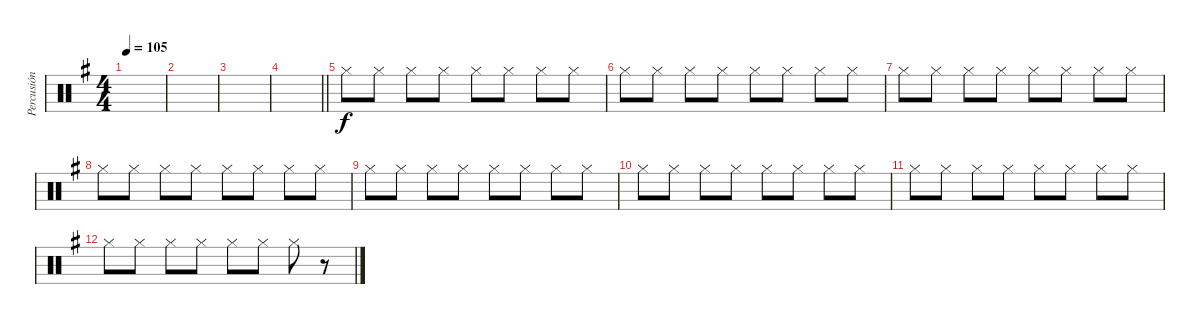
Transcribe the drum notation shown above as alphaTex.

\track ("Percusión" "Percusión") {instrument percussion}
\staff {score}
\articulation defaults
\ts (4 4)
\tempo 105
\clef neutral
\ks g
|
|
|
\barLineRight lightlight
|
"Hi-Hat (closed)".8 "Hi-Hat (closed)".8 "Hi-Hat (closed)".8 "Hi-Hat (closed)".8 "Hi-Hat (closed)".8 "Hi-Hat (closed)".8 "Hi-Hat (closed)".8 "Hi-Hat (closed)".8 |
"Hi-Hat (closed)".8 "Hi-Hat (closed)".8 "Hi-Hat (closed)".8 "Hi-Hat (closed)".8 "Hi-Hat (closed)".8 "Hi-Hat (closed)".8 "Hi-Hat (closed)".8 "Hi-Hat (closed)".8 |
"Hi-Hat (closed)".8 "Hi-Hat (closed)".8 "Hi-Hat (closed)".8 "Hi-Hat (closed)".8 "Hi-Hat (closed)".8 "Hi-Hat (closed)".8 "Hi-Hat (closed)".8 "Hi-Hat (closed)".8 |
"Hi-Hat (closed)".8 "Hi-Hat (closed)".8 "Hi-Hat (closed)".8 "Hi-Hat (closed)".8 "Hi-Hat (closed)".8 "Hi-Hat (closed)".8 "Hi-Hat (closed)".8 "Hi-Hat (closed)".8 |
"Hi-Hat (closed)".8 "Hi-Hat (closed)".8 "Hi-Hat (closed)".8 "Hi-Hat (closed)".8 "Hi-Hat (closed)".8 "Hi-Hat (closed)".8 "Hi-Hat (closed)".8 "Hi-Hat (closed)".8 |
"Hi-Hat (closed)".8 "Hi-Hat (closed)".8 "Hi-Hat (closed)".8 "Hi-Hat (closed)".8 "Hi-Hat (closed)".8 "Hi-Hat (closed)".8 "Hi-Hat (closed)".8 "Hi-Hat (closed)".8 |
"Hi-Hat (closed)".8 "Hi-Hat (closed)".8 "Hi-Hat (closed)".8 "Hi-Hat (closed)".8 "Hi-Hat (closed)".8 "Hi-Hat (closed)".8 "Hi-Hat (closed)".8 "Hi-Hat (closed)".8 |
"Hi-Hat (closed)".8 "Hi-Hat (closed)".8 "Hi-Hat (closed)".8 "Hi-Hat (closed)".8 "Hi-Hat (closed)".8 "Hi-Hat (closed)".8 "Hi-Hat (closed)".8 r.8
